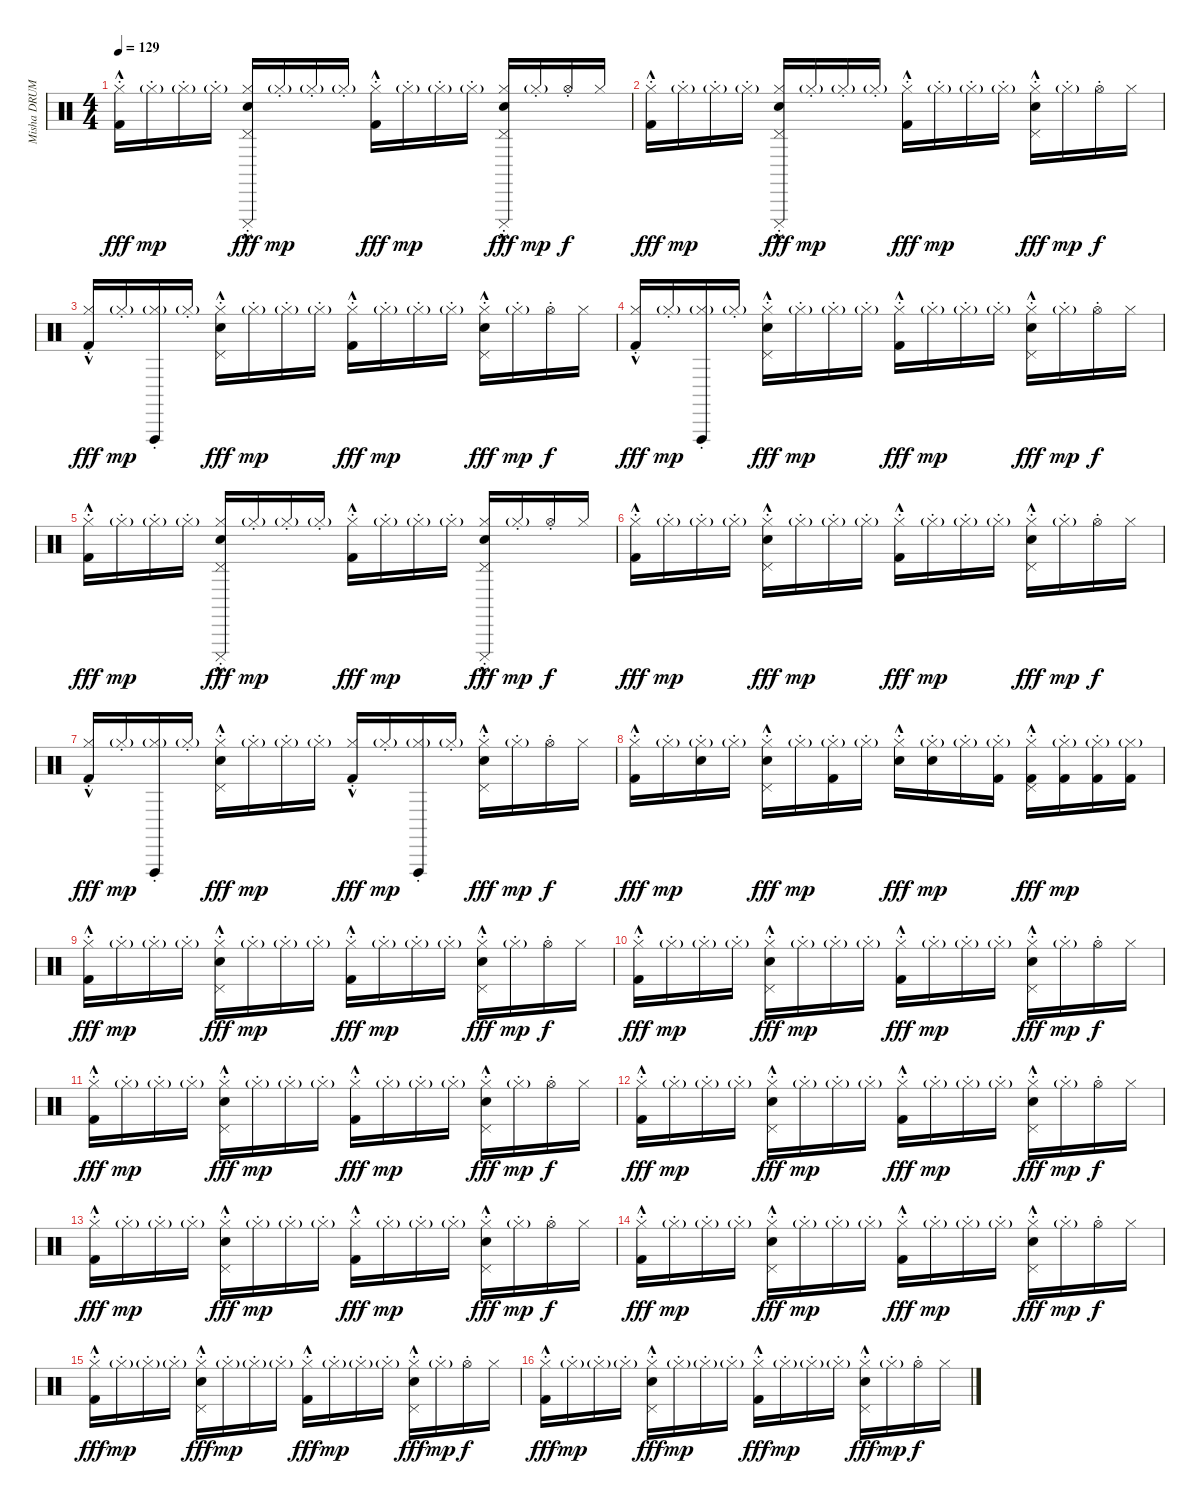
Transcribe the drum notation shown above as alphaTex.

\track ("Misha DRUMS" "Misha DRUM") {instrument percussion}
\staff {score}
\articulation defaults
\ts (4 4)
\tempo 129
\clef neutral
\ks c
("Hi-Hat (closed)"{hac st} "Kick (hit) 2").16{dy fff} "Hi-Hat (closed)"{g st}.16{dy mp} "Hi-Hat (closed)"{g st}.16 "Hi-Hat (closed)"{g st}.16 ("Hi-Hat (closed)"{hac st} "Pedal Hi-Hat (hit)" "Snare (hit) 2" "Cuica (mute)").16{dy fff} "Hi-Hat (closed)"{g st}.16{dy mp} "Hi-Hat (closed)"{g st}.16 "Hi-Hat (closed)"{g st}.16 ("Hi-Hat (closed)"{hac st} "Kick (hit) 2").16{dy fff} "Hi-Hat (closed)"{g st}.16{dy mp} "Hi-Hat (closed)"{g st}.16 "Hi-Hat (closed)"{g st}.16 ("Hi-Hat (closed)"{hac st} "Pedal Hi-Hat (hit)" "Snare (hit) 2" "Cuica (mute)").16{dy fff} "Hi-Hat (closed)"{g st}.16{dy mp} "Hi-Hat (open)"{st}.16{dy f} "Hi-Hat (closed)".16 |
("Hi-Hat (closed)"{hac st} "Kick (hit) 2").16{dy fff} "Hi-Hat (closed)"{g st}.16{dy mp} "Hi-Hat (closed)"{g st}.16 "Hi-Hat (closed)"{g st}.16 ("Hi-Hat (closed)"{hac st} "Pedal Hi-Hat (hit)" "Snare (hit) 2" "Cuica (mute)").16{dy fff} "Hi-Hat (closed)"{g st}.16{dy mp} "Hi-Hat (closed)"{g st}.16 "Hi-Hat (closed)"{g st}.16 ("Hi-Hat (closed)"{hac st} "Kick (hit) 2").16{dy fff} "Hi-Hat (closed)"{g st}.16{dy mp} "Hi-Hat (closed)"{g st}.16 "Hi-Hat (closed)"{g st}.16 ("Hi-Hat (closed)"{hac st} "Pedal Hi-Hat (hit)" "Snare (hit) 2").16{dy fff} "Hi-Hat (closed)"{g st}.16{dy mp} "Hi-Hat (open)"{st}.16{dy f} "Hi-Hat (closed)".16 |
("Hi-Hat (closed)"{hac st} "Kick (hit) 2").16{dy fff} "Hi-Hat (closed)"{g st}.16{dy mp} ("Hi-Hat (closed)"{g st} "Vibraslap (hit)").16 "Hi-Hat (closed)"{g st}.16 ("Hi-Hat (closed)"{hac st} "Pedal Hi-Hat (hit)" "Snare (hit) 2").16{dy fff} "Hi-Hat (closed)"{g st}.16{dy mp} "Hi-Hat (closed)"{g st}.16 "Hi-Hat (closed)"{g st}.16 ("Hi-Hat (closed)"{hac st} "Kick (hit) 2").16{dy fff} "Hi-Hat (closed)"{g st}.16{dy mp} "Hi-Hat (closed)"{g st}.16 "Hi-Hat (closed)"{g st}.16 ("Hi-Hat (closed)"{hac st} "Pedal Hi-Hat (hit)" "Snare (hit) 2").16{dy fff} "Hi-Hat (closed)"{g st}.16{dy mp} "Hi-Hat (open)"{st}.16{dy f} "Hi-Hat (closed)".16 |
("Hi-Hat (closed)"{hac st} "Kick (hit) 2").16{dy fff} "Hi-Hat (closed)"{g st}.16{dy mp} ("Hi-Hat (closed)"{g st} "Vibraslap (hit)").16 "Hi-Hat (closed)"{g st}.16 ("Hi-Hat (closed)"{hac st} "Pedal Hi-Hat (hit)" "Snare (hit) 2").16{dy fff} "Hi-Hat (closed)"{g st}.16{dy mp} "Hi-Hat (closed)"{g st}.16 "Hi-Hat (closed)"{g st}.16 ("Hi-Hat (closed)"{hac st} "Kick (hit) 2").16{dy fff} "Hi-Hat (closed)"{g st}.16{dy mp} "Hi-Hat (closed)"{g st}.16 "Hi-Hat (closed)"{g st}.16 ("Hi-Hat (closed)"{hac st} "Pedal Hi-Hat (hit)" "Snare (hit) 2").16{dy fff} "Hi-Hat (closed)"{g st}.16{dy mp} "Hi-Hat (open)"{st}.16{dy f} "Hi-Hat (closed)".16 |
("Hi-Hat (closed)"{hac st} "Kick (hit) 2").16{dy fff} "Hi-Hat (closed)"{g st}.16{dy mp} "Hi-Hat (closed)"{g st}.16 "Hi-Hat (closed)"{g st}.16 ("Hi-Hat (closed)"{hac st} "Pedal Hi-Hat (hit)" "Snare (hit) 2" "Cuica (mute)").16{dy fff} "Hi-Hat (closed)"{g st}.16{dy mp} "Hi-Hat (closed)"{g st}.16 "Hi-Hat (closed)"{g st}.16 ("Hi-Hat (closed)"{hac st} "Kick (hit) 2").16{dy fff} "Hi-Hat (closed)"{g st}.16{dy mp} "Hi-Hat (closed)"{g st}.16 "Hi-Hat (closed)"{g st}.16 ("Hi-Hat (closed)"{hac st} "Pedal Hi-Hat (hit)" "Snare (hit) 2" "Cuica (mute)").16{dy fff} "Hi-Hat (closed)"{g st}.16{dy mp} "Hi-Hat (open)"{st}.16{dy f} "Hi-Hat (closed)".16 |
("Hi-Hat (closed)"{hac st} "Kick (hit) 2").16{dy fff} "Hi-Hat (closed)"{g st}.16{dy mp} "Hi-Hat (closed)"{g st}.16 "Hi-Hat (closed)"{g st}.16 ("Hi-Hat (closed)"{hac st} "Pedal Hi-Hat (hit)" "Snare (hit) 2").16{dy fff} "Hi-Hat (closed)"{g st}.16{dy mp} "Hi-Hat (closed)"{g st}.16 "Hi-Hat (closed)"{g st}.16 ("Hi-Hat (closed)"{hac st} "Kick (hit) 2").16{dy fff} "Hi-Hat (closed)"{g st}.16{dy mp} "Hi-Hat (closed)"{g st}.16 "Hi-Hat (closed)"{g st}.16 ("Hi-Hat (closed)"{hac st} "Pedal Hi-Hat (hit)" "Snare (hit) 2").16{dy fff} "Hi-Hat (closed)"{g st}.16{dy mp} "Hi-Hat (open)"{st}.16{dy f} "Hi-Hat (closed)".16 |
("Hi-Hat (closed)"{hac st} "Kick (hit) 2").16{dy fff} "Hi-Hat (closed)"{g st}.16{dy mp} ("Hi-Hat (closed)"{g st} "Vibraslap (hit)").16 "Hi-Hat (closed)"{g st}.16 ("Hi-Hat (closed)"{hac st} "Pedal Hi-Hat (hit)" "Snare (hit) 2").16{dy fff} "Hi-Hat (closed)"{g st}.16{dy mp} "Hi-Hat (closed)"{g st}.16 "Hi-Hat (closed)"{g st}.16 ("Hi-Hat (closed)"{hac st} "Kick (hit) 2").16{dy fff} "Hi-Hat (closed)"{g st}.16{dy mp} ("Hi-Hat (closed)"{g st} "Vibraslap (hit)").16 "Hi-Hat (closed)"{g st}.16 ("Hi-Hat (closed)"{hac st} "Pedal Hi-Hat (hit)" "Snare (hit) 2").16{dy fff} "Hi-Hat (closed)"{g st}.16{dy mp} "Hi-Hat (open)"{st}.16{dy f} "Hi-Hat (closed)".16 |
("Hi-Hat (closed)"{hac st} "Kick (hit) 2").16{dy fff} "Hi-Hat (closed)"{g st}.16{dy mp} ("Hi-Hat (closed)"{g st} "Snare (hit) 2").16 "Hi-Hat (closed)"{g st}.16 ("Hi-Hat (closed)"{hac st} "Pedal Hi-Hat (hit)" "Snare (hit) 2").16{dy fff} "Hi-Hat (closed)"{g st}.16{dy mp} ("Hi-Hat (closed)"{g st} "Kick (hit) 2").16 "Hi-Hat (closed)"{g st}.16 ("Hi-Hat (closed)"{hac st} "Snare (hit) 2").16{dy fff} ("Hi-Hat (closed)"{g st} "Snare (hit) 2").16{dy mp} "Hi-Hat (closed)"{g st}.16 ("Hi-Hat (closed)"{g st} "Kick (hit) 2").16 ("Hi-Hat (closed)"{hac st} "Pedal Hi-Hat (hit)" "Kick (hit) 2").16{dy fff} ("Hi-Hat (closed)"{g st} "Kick (hit) 2").16{dy mp} ("Hi-Hat (closed)"{g st} "Kick (hit) 2").16 ("Hi-Hat (closed)"{g} "Kick (hit) 2").16 |
("Hi-Hat (closed)"{hac st} "Kick (hit) 2").16{dy fff} "Hi-Hat (closed)"{g st}.16{dy mp} "Hi-Hat (closed)"{g st}.16 "Hi-Hat (closed)"{g st}.16 ("Hi-Hat (closed)"{hac st} "Pedal Hi-Hat (hit)" "Snare (hit) 2").16{dy fff} "Hi-Hat (closed)"{g st}.16{dy mp} "Hi-Hat (closed)"{g st}.16 "Hi-Hat (closed)"{g st}.16 ("Hi-Hat (closed)"{hac st} "Kick (hit) 2").16{dy fff} "Hi-Hat (closed)"{g st}.16{dy mp} "Hi-Hat (closed)"{g st}.16 "Hi-Hat (closed)"{g st}.16 ("Hi-Hat (closed)"{hac st} "Pedal Hi-Hat (hit)" "Snare (hit) 2").16{dy fff} "Hi-Hat (closed)"{g st}.16{dy mp} "Hi-Hat (open)"{st}.16{dy f} "Hi-Hat (closed)".16 |
("Hi-Hat (closed)"{hac st} "Kick (hit) 2").16{dy fff} "Hi-Hat (closed)"{g st}.16{dy mp} "Hi-Hat (closed)"{g st}.16 "Hi-Hat (closed)"{g st}.16 ("Hi-Hat (closed)"{hac st} "Pedal Hi-Hat (hit)" "Snare (hit) 2").16{dy fff} "Hi-Hat (closed)"{g st}.16{dy mp} "Hi-Hat (closed)"{g st}.16 "Hi-Hat (closed)"{g st}.16 ("Hi-Hat (closed)"{hac st} "Kick (hit) 2").16{dy fff} "Hi-Hat (closed)"{g st}.16{dy mp} "Hi-Hat (closed)"{g st}.16 "Hi-Hat (closed)"{g st}.16 ("Hi-Hat (closed)"{hac st} "Pedal Hi-Hat (hit)" "Snare (hit) 2").16{dy fff} "Hi-Hat (closed)"{g st}.16{dy mp} "Hi-Hat (open)"{st}.16{dy f} "Hi-Hat (closed)".16 |
("Hi-Hat (closed)"{hac st} "Kick (hit) 2").16{dy fff} "Hi-Hat (closed)"{g st}.16{dy mp} "Hi-Hat (closed)"{g st}.16 "Hi-Hat (closed)"{g st}.16 ("Hi-Hat (closed)"{hac st} "Pedal Hi-Hat (hit)" "Snare (hit) 2").16{dy fff} "Hi-Hat (closed)"{g st}.16{dy mp} "Hi-Hat (closed)"{g st}.16 "Hi-Hat (closed)"{g st}.16 ("Hi-Hat (closed)"{hac st} "Kick (hit) 2").16{dy fff} "Hi-Hat (closed)"{g st}.16{dy mp} "Hi-Hat (closed)"{g st}.16 "Hi-Hat (closed)"{g st}.16 ("Hi-Hat (closed)"{hac st} "Pedal Hi-Hat (hit)" "Snare (hit) 2").16{dy fff} "Hi-Hat (closed)"{g st}.16{dy mp} "Hi-Hat (open)"{st}.16{dy f} "Hi-Hat (closed)".16 |
("Hi-Hat (closed)"{hac st} "Kick (hit) 2").16{dy fff} "Hi-Hat (closed)"{g st}.16{dy mp} "Hi-Hat (closed)"{g st}.16 "Hi-Hat (closed)"{g st}.16 ("Hi-Hat (closed)"{hac st} "Pedal Hi-Hat (hit)" "Snare (hit) 2").16{dy fff} "Hi-Hat (closed)"{g st}.16{dy mp} "Hi-Hat (closed)"{g st}.16 "Hi-Hat (closed)"{g st}.16 ("Hi-Hat (closed)"{hac st} "Kick (hit) 2").16{dy fff} "Hi-Hat (closed)"{g st}.16{dy mp} "Hi-Hat (closed)"{g st}.16 "Hi-Hat (closed)"{g st}.16 ("Hi-Hat (closed)"{hac st} "Pedal Hi-Hat (hit)" "Snare (hit) 2").16{dy fff} "Hi-Hat (closed)"{g st}.16{dy mp} "Hi-Hat (open)"{st}.16{dy f} "Hi-Hat (closed)".16 |
("Hi-Hat (closed)"{hac st} "Kick (hit) 2").16{dy fff} "Hi-Hat (closed)"{g st}.16{dy mp} "Hi-Hat (closed)"{g st}.16 "Hi-Hat (closed)"{g st}.16 ("Hi-Hat (closed)"{hac st} "Pedal Hi-Hat (hit)" "Snare (hit) 2").16{dy fff} "Hi-Hat (closed)"{g st}.16{dy mp} "Hi-Hat (closed)"{g st}.16 "Hi-Hat (closed)"{g st}.16 ("Hi-Hat (closed)"{hac st} "Kick (hit) 2").16{dy fff} "Hi-Hat (closed)"{g st}.16{dy mp} "Hi-Hat (closed)"{g st}.16 "Hi-Hat (closed)"{g st}.16 ("Hi-Hat (closed)"{hac st} "Pedal Hi-Hat (hit)" "Snare (hit) 2").16{dy fff} "Hi-Hat (closed)"{g st}.16{dy mp} "Hi-Hat (open)"{st}.16{dy f} "Hi-Hat (closed)".16 |
("Hi-Hat (closed)"{hac st} "Kick (hit) 2").16{dy fff} "Hi-Hat (closed)"{g st}.16{dy mp} "Hi-Hat (closed)"{g st}.16 "Hi-Hat (closed)"{g st}.16 ("Hi-Hat (closed)"{hac st} "Pedal Hi-Hat (hit)" "Snare (hit) 2").16{dy fff} "Hi-Hat (closed)"{g st}.16{dy mp} "Hi-Hat (closed)"{g st}.16 "Hi-Hat (closed)"{g st}.16 ("Hi-Hat (closed)"{hac st} "Kick (hit) 2").16{dy fff} "Hi-Hat (closed)"{g st}.16{dy mp} "Hi-Hat (closed)"{g st}.16 "Hi-Hat (closed)"{g st}.16 ("Hi-Hat (closed)"{hac st} "Pedal Hi-Hat (hit)" "Snare (hit) 2").16{dy fff} "Hi-Hat (closed)"{g st}.16{dy mp} "Hi-Hat (open)"{st}.16{dy f} "Hi-Hat (closed)".16 |
("Hi-Hat (closed)"{hac st} "Kick (hit) 2").16{dy fff} "Hi-Hat (closed)"{g st}.16{dy mp} "Hi-Hat (closed)"{g st}.16 "Hi-Hat (closed)"{g st}.16 ("Hi-Hat (closed)"{hac st} "Pedal Hi-Hat (hit)" "Snare (hit) 2").16{dy fff} "Hi-Hat (closed)"{g st}.16{dy mp} "Hi-Hat (closed)"{g st}.16 "Hi-Hat (closed)"{g st}.16 ("Hi-Hat (closed)"{hac st} "Kick (hit) 2").16{dy fff} "Hi-Hat (closed)"{g st}.16{dy mp} "Hi-Hat (closed)"{g st}.16 "Hi-Hat (closed)"{g st}.16 ("Hi-Hat (closed)"{hac st} "Pedal Hi-Hat (hit)" "Snare (hit) 2").16{dy fff} "Hi-Hat (closed)"{g st}.16{dy mp} "Hi-Hat (open)"{st}.16{dy f} "Hi-Hat (closed)".16 |
("Hi-Hat (closed)"{hac st} "Kick (hit) 2").16{dy fff} "Hi-Hat (closed)"{g st}.16{dy mp} "Hi-Hat (closed)"{g st}.16 "Hi-Hat (closed)"{g st}.16 ("Hi-Hat (closed)"{hac st} "Pedal Hi-Hat (hit)" "Snare (hit) 2").16{dy fff} "Hi-Hat (closed)"{g st}.16{dy mp} "Hi-Hat (closed)"{g st}.16 "Hi-Hat (closed)"{g st}.16 ("Hi-Hat (closed)"{hac st} "Kick (hit) 2").16{dy fff} "Hi-Hat (closed)"{g st}.16{dy mp} "Hi-Hat (closed)"{g st}.16 "Hi-Hat (closed)"{g st}.16 ("Hi-Hat (closed)"{hac st} "Pedal Hi-Hat (hit)" "Snare (hit) 2").16{dy fff} "Hi-Hat (closed)"{g st}.16{dy mp} "Hi-Hat (open)"{st}.16{dy f} "Hi-Hat (closed)".16
